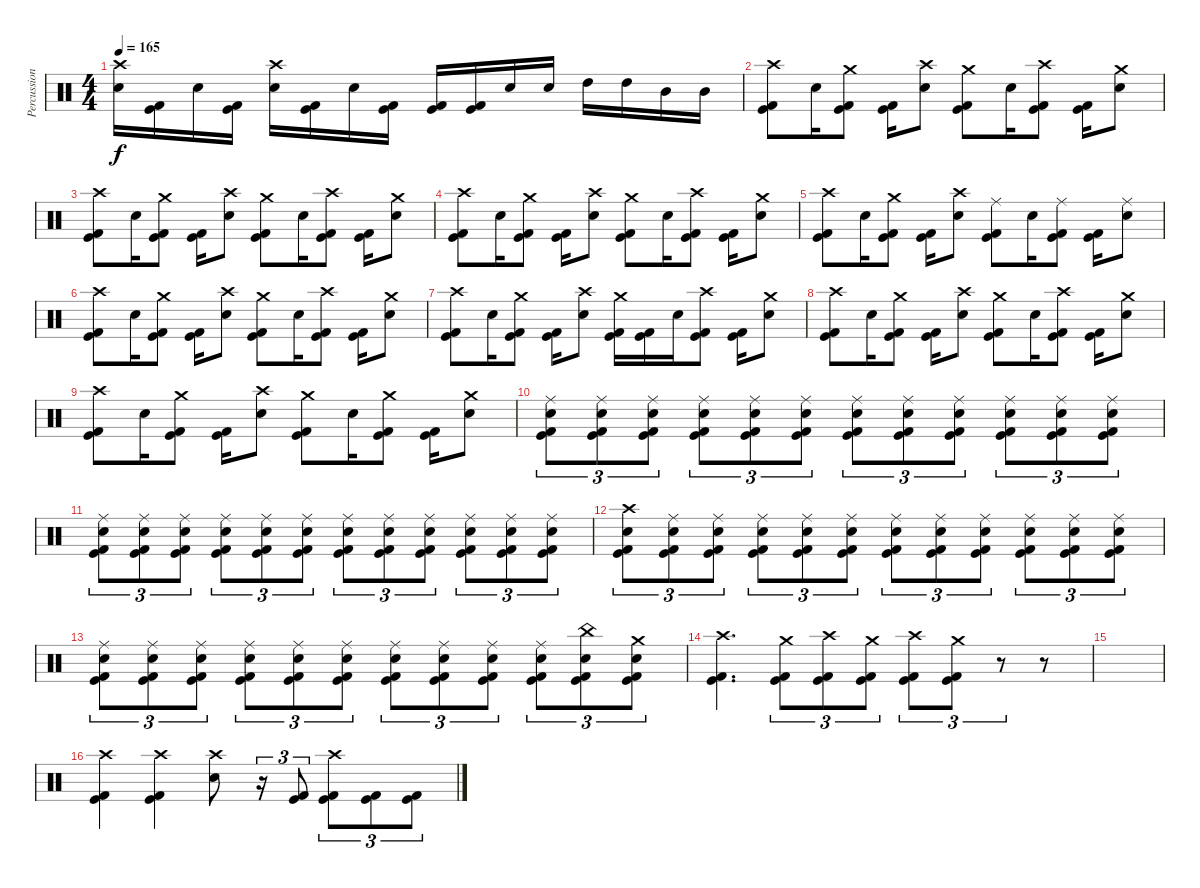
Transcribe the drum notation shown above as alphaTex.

\track ("Percussion" "Percussion") {instrument percussion}
\staff {score}
\articulation defaults
\ts (4 4)
\tempo 165
\clef neutral
\ks c
("Crash high (hit)" "Electric Snare (hit)").16{dy f} ("Kick (hit)" "Kick (hit) 2").16 "Electric Snare (hit)".16 ("Kick (hit)" "Kick (hit) 2").16 ("Crash high (hit)" "Electric Snare (hit)").16 ("Kick (hit)" "Kick (hit) 2").16 "Electric Snare (hit)".16 ("Kick (hit)" "Kick (hit) 2").16 ("Kick (hit)" "Kick (hit) 2").16 ("Kick (hit)" "Kick (hit) 2").16 "Electric Snare (hit)".16 "Electric Snare (hit)".16 "High Tom (hit)".16 "High Tom (hit)".16 "Mid Tom (hit)".16 "Mid Tom (hit)".16 |
("Crash high (hit)" "Kick (hit)" "Kick (hit) 2").8 "Electric Snare (hit)".16 ("Crash medium (hit)" "Kick (hit)" "Kick (hit) 2").8 ("Kick (hit)" "Kick (hit) 2").16 ("Crash high (hit)" "Electric Snare (hit)").8 ("Crash medium (hit)" "Kick (hit)" "Kick (hit) 2").8 "Electric Snare (hit)".16 ("Crash high (hit)" "Kick (hit)" "Kick (hit) 2").8 ("Kick (hit)" "Kick (hit) 2").16 ("Crash medium (hit)" "Electric Snare (hit)").8 |
("Crash high (hit)" "Kick (hit)" "Kick (hit) 2").8 "Electric Snare (hit)".16 ("Crash medium (hit)" "Kick (hit)" "Kick (hit) 2").8 ("Kick (hit)" "Kick (hit) 2").16 ("Crash high (hit)" "Electric Snare (hit)").8 ("Crash medium (hit)" "Kick (hit)" "Kick (hit) 2").8 "Electric Snare (hit)".16 ("Crash high (hit)" "Kick (hit)" "Kick (hit) 2").8 ("Kick (hit)" "Kick (hit) 2").16 ("Crash medium (hit)" "Electric Snare (hit)").8 |
("Crash high (hit)" "Kick (hit)" "Kick (hit) 2").8 "Electric Snare (hit)".16 ("Crash medium (hit)" "Kick (hit)" "Kick (hit) 2").8 ("Kick (hit)" "Kick (hit) 2").16 ("Crash high (hit)" "Electric Snare (hit)").8 ("Crash medium (hit)" "Kick (hit)" "Kick (hit) 2").8 "Electric Snare (hit)".16 ("Crash high (hit)" "Kick (hit)" "Kick (hit) 2").8 ("Kick (hit)" "Kick (hit) 2").16 ("Crash medium (hit)" "Electric Snare (hit)").8 |
("Crash high (hit)" "Kick (hit)" "Kick (hit) 2").8 "Electric Snare (hit)".16 ("Crash medium (hit)" "Kick (hit)" "Kick (hit) 2").8 ("Kick (hit)" "Kick (hit) 2").16 ("Crash high (hit)" "Electric Snare (hit)").8 ("Ride (middle)" "Kick (hit)" "Kick (hit) 2").8 "Electric Snare (hit)".16 ("Ride (middle)" "Kick (hit)" "Kick (hit) 2").8 ("Kick (hit)" "Kick (hit) 2").16 ("Ride (middle)" "Electric Snare (hit)").8 |
("Crash high (hit)" "Kick (hit)" "Kick (hit) 2").8 "Electric Snare (hit)".16 ("Crash medium (hit)" "Kick (hit)" "Kick (hit) 2").8 ("Kick (hit)" "Kick (hit) 2").16 ("Crash high (hit)" "Electric Snare (hit)").8 ("Crash medium (hit)" "Kick (hit)" "Kick (hit) 2").8 "Electric Snare (hit)".16 ("Crash high (hit)" "Kick (hit)" "Kick (hit) 2").8 ("Kick (hit)" "Kick (hit) 2").16 ("Crash medium (hit)" "Electric Snare (hit)").8 |
("Crash high (hit)" "Kick (hit)" "Kick (hit) 2").8 "Electric Snare (hit)".16 ("Crash medium (hit)" "Kick (hit)" "Kick (hit) 2").8 ("Kick (hit)" "Kick (hit) 2").16 ("Crash high (hit)" "Electric Snare (hit)").8 ("Crash medium (hit)" "Kick (hit)" "Kick (hit) 2").16 ("Kick (hit)" "Kick (hit) 2").16 "Electric Snare (hit)".16 ("Crash high (hit)" "Kick (hit)" "Kick (hit) 2").8 ("Kick (hit)" "Kick (hit) 2").16 ("Crash medium (hit)" "Electric Snare (hit)").8 |
("Crash high (hit)" "Kick (hit)" "Kick (hit) 2").8 "Electric Snare (hit)".16 ("Crash medium (hit)" "Kick (hit)" "Kick (hit) 2").8 ("Kick (hit)" "Kick (hit) 2").16 ("Crash high (hit)" "Electric Snare (hit)").8 ("Crash medium (hit)" "Kick (hit)" "Kick (hit) 2").8 "Electric Snare (hit)".16 ("Crash high (hit)" "Kick (hit)" "Kick (hit) 2").8 ("Kick (hit)" "Kick (hit) 2").16 ("Crash medium (hit)" "Electric Snare (hit)").8 |
("Crash high (hit)" "Kick (hit)" "Kick (hit) 2").8 "Electric Snare (hit)".16 ("Crash medium (hit)" "Kick (hit)" "Kick (hit) 2").8 ("Kick (hit)" "Kick (hit) 2").16 ("Crash high (hit)" "Electric Snare (hit)").8 ("Crash medium (hit)" "Kick (hit)" "Kick (hit) 2").8 "Electric Snare (hit)".16 ("Crash medium (hit)" "Kick (hit)" "Kick (hit) 2").8 ("Kick (hit)" "Kick (hit) 2").16 ("Crash medium (hit)" "Electric Snare (hit)").8 |
("Ride (middle)" "Electric Snare (hit)" "Kick (hit)" "Kick (hit) 2").8{tu (3 2)} ("Ride (middle)" "Electric Snare (hit)" "Kick (hit)" "Kick (hit) 2").8{tu (3 2)} ("Ride (middle)" "Electric Snare (hit)" "Kick (hit)" "Kick (hit) 2").8{tu (3 2)} ("Ride (middle)" "Electric Snare (hit)" "Kick (hit)" "Kick (hit) 2").8{tu (3 2)} ("Ride (middle)" "Electric Snare (hit)" "Kick (hit)" "Kick (hit) 2").8{tu (3 2)} ("Ride (middle)" "Electric Snare (hit)" "Kick (hit)" "Kick (hit) 2").8{tu (3 2)} ("Ride (middle)" "Electric Snare (hit)" "Kick (hit)" "Kick (hit) 2").8{tu (3 2)} ("Ride (middle)" "Electric Snare (hit)" "Kick (hit)" "Kick (hit) 2").8{tu (3 2)} ("Ride (middle)" "Electric Snare (hit)" "Kick (hit)" "Kick (hit) 2").8{tu (3 2)} ("Ride (middle)" "Electric Snare (hit)" "Kick (hit)" "Kick (hit) 2").8{tu (3 2)} ("Ride (middle)" "Electric Snare (hit)" "Kick (hit)" "Kick (hit) 2").8{tu (3 2)} ("Ride (middle)" "Electric Snare (hit)" "Kick (hit)" "Kick (hit) 2").8{tu (3 2)} |
("Ride (middle)" "Electric Snare (hit)" "Kick (hit)" "Kick (hit) 2").8{tu (3 2)} ("Ride (middle)" "Electric Snare (hit)" "Kick (hit)" "Kick (hit) 2").8{tu (3 2)} ("Ride (middle)" "Electric Snare (hit)" "Kick (hit)" "Kick (hit) 2").8{tu (3 2)} ("Ride (middle)" "Electric Snare (hit)" "Kick (hit)" "Kick (hit) 2").8{tu (3 2)} ("Ride (middle)" "Electric Snare (hit)" "Kick (hit)" "Kick (hit) 2").8{tu (3 2)} ("Ride (middle)" "Electric Snare (hit)" "Kick (hit)" "Kick (hit) 2").8{tu (3 2)} ("Ride (middle)" "Electric Snare (hit)" "Kick (hit)" "Kick (hit) 2").8{tu (3 2)} ("Ride (middle)" "Electric Snare (hit)" "Kick (hit)" "Kick (hit) 2").8{tu (3 2)} ("Ride (middle)" "Electric Snare (hit)" "Kick (hit)" "Kick (hit) 2").8{tu (3 2)} ("Ride (middle)" "Electric Snare (hit)" "Kick (hit)" "Kick (hit) 2").8{tu (3 2)} ("Ride (middle)" "Electric Snare (hit)" "Kick (hit)" "Kick (hit) 2").8{tu (3 2)} ("Ride (middle)" "Electric Snare (hit)" "Kick (hit)" "Kick (hit) 2").8{tu (3 2)} |
("Crash high (hit)" "Electric Snare (hit)" "Kick (hit)" "Kick (hit) 2").8{tu (3 2)} ("Ride (middle)" "Electric Snare (hit)" "Kick (hit)" "Kick (hit) 2").8{tu (3 2)} ("Ride (middle)" "Electric Snare (hit)" "Kick (hit)" "Kick (hit) 2").8{tu (3 2)} ("Ride (middle)" "Electric Snare (hit)" "Kick (hit)" "Kick (hit) 2").8{tu (3 2)} ("Ride (middle)" "Electric Snare (hit)" "Kick (hit)" "Kick (hit) 2").8{tu (3 2)} ("Ride (middle)" "Electric Snare (hit)" "Kick (hit)" "Kick (hit) 2").8{tu (3 2)} ("Ride (middle)" "Electric Snare (hit)" "Kick (hit)" "Kick (hit) 2").8{tu (3 2)} ("Ride (middle)" "Electric Snare (hit)" "Kick (hit)" "Kick (hit) 2").8{tu (3 2)} ("Ride (middle)" "Electric Snare (hit)" "Kick (hit)" "Kick (hit) 2").8{tu (3 2)} ("Ride (middle)" "Electric Snare (hit)" "Kick (hit)" "Kick (hit) 2").8{tu (3 2)} ("Ride (middle)" "Electric Snare (hit)" "Kick (hit)" "Kick (hit) 2").8{tu (3 2)} ("Ride (middle)" "Electric Snare (hit)" "Kick (hit)" "Kick (hit) 2").8{tu (3 2)} |
("Ride (middle)" "Electric Snare (hit)" "Kick (hit)" "Kick (hit) 2").8{tu (3 2)} ("Ride (middle)" "Electric Snare (hit)" "Kick (hit)" "Kick (hit) 2").8{tu (3 2)} ("Ride (middle)" "Electric Snare (hit)" "Kick (hit)" "Kick (hit) 2").8{tu (3 2)} ("Ride (middle)" "Electric Snare (hit)" "Kick (hit)" "Kick (hit) 2").8{tu (3 2)} ("Ride (middle)" "Electric Snare (hit)" "Kick (hit)" "Kick (hit) 2").8{tu (3 2)} ("Ride (middle)" "Electric Snare (hit)" "Kick (hit)" "Kick (hit) 2").8{tu (3 2)} ("Ride (middle)" "Electric Snare (hit)" "Kick (hit)" "Kick (hit) 2").8{tu (3 2)} ("Ride (middle)" "Electric Snare (hit)" "Kick (hit)" "Kick (hit) 2").8{tu (3 2)} ("Ride (middle)" "Electric Snare (hit)" "Kick (hit)" "Kick (hit) 2").8{tu (3 2)} ("Ride (middle)" "Electric Snare (hit)" "Kick (hit)" "Kick (hit) 2").8{tu (3 2)} ("China (hit)" "Electric Snare (hit)" "Kick (hit)" "Kick (hit) 2").8{tu (3 2)} ("Crash medium (hit)" "Electric Snare (hit)" "Kick (hit)" "Kick (hit) 2").8{tu (3 2)} |
("Crash high (hit)" "Kick (hit)" "Kick (hit) 2").4{d} ("Crash medium (hit)" "Kick (hit)" "Kick (hit) 2").8{tu (3 2)} ("Crash high (hit)" "Kick (hit)" "Kick (hit) 2").8{tu (3 2)} ("Crash medium (hit)" "Kick (hit)" "Kick (hit) 2").8{tu (3 2)} ("Crash high (hit)" "Kick (hit)" "Kick (hit) 2").8{tu (3 2)} ("Crash medium (hit)" "Kick (hit)" "Kick (hit) 2").8{tu (3 2)} r.8{tu (3 2)} r.8 |
|
("Crash high (hit)" "Kick (hit)" "Kick (hit) 2").4 ("Crash high (hit)" "Kick (hit)" "Kick (hit) 2").4 ("Crash high (hit)" "Electric Snare (hit)").8 r.16{tu (3 2)} ("Kick (hit)" "Kick (hit) 2").8{tu (3 2)} ("Crash high (hit)" "Kick (hit)" "Kick (hit) 2").8{tu (3 2)} ("Kick (hit)" "Kick (hit) 2").8{tu (3 2)} ("Kick (hit)" "Kick (hit) 2").8{tu (3 2)}
